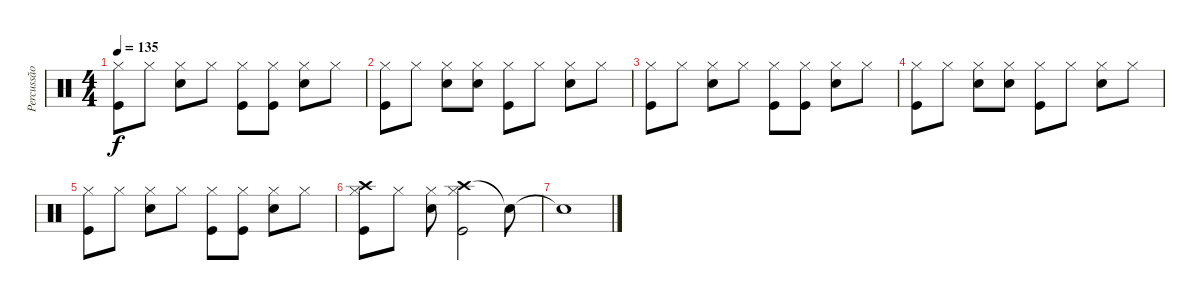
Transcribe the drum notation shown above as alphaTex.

\track ("Percussão" "Percussão") {instrument percussion}
\staff {score}
\articulation defaults
\ts (4 4)
\tempo 135
\clef neutral
\ks c
("Hi-Hat (closed)" "Kick (hit)").8{dy f} "Hi-Hat (closed)".8 ("Hi-Hat (closed)" "Snare (hit) 2").8 "Hi-Hat (closed)".8 ("Hi-Hat (closed)" "Kick (hit)").8 ("Hi-Hat (closed)" "Kick (hit)").8 ("Hi-Hat (closed)" "Snare (hit) 2").8 "Hi-Hat (closed)".8 |
("Hi-Hat (closed)" "Kick (hit)").8 "Hi-Hat (closed)".8 ("Hi-Hat (closed)" "Snare (hit) 2").8 ("Hi-Hat (closed)" "Snare (hit) 2").8 ("Hi-Hat (closed)" "Kick (hit)").8 "Hi-Hat (closed)".8 ("Hi-Hat (closed)" "Snare (hit) 2").8 "Hi-Hat (closed)".8 |
("Hi-Hat (closed)" "Kick (hit)").8 "Hi-Hat (closed)".8 ("Hi-Hat (closed)" "Snare (hit) 2").8 "Hi-Hat (closed)".8 ("Hi-Hat (closed)" "Kick (hit)").8 ("Hi-Hat (closed)" "Kick (hit)").8 ("Hi-Hat (closed)" "Snare (hit) 2").8 "Hi-Hat (closed)".8 |
("Hi-Hat (closed)" "Kick (hit)").8 "Hi-Hat (closed)".8 ("Hi-Hat (closed)" "Snare (hit) 2").8 ("Hi-Hat (closed)" "Snare (hit) 2").8 ("Hi-Hat (closed)" "Kick (hit)").8 "Hi-Hat (closed)".8 ("Hi-Hat (closed)" "Snare (hit) 2").8 "Hi-Hat (closed)".8 |
("Hi-Hat (closed)" "Kick (hit)").8 "Hi-Hat (closed)".8 ("Hi-Hat (closed)" "Snare (hit) 2").8 "Hi-Hat (closed)".8 ("Hi-Hat (closed)" "Kick (hit)").8 ("Hi-Hat (closed)" "Kick (hit)").8 ("Hi-Hat (closed)" "Snare (hit) 2").8 "Hi-Hat (closed)".8 |
("Crash high (hit)" "Hi-Hat (closed)" "Kick (hit)").8 "Hi-Hat (closed)".8 ("Hi-Hat (closed)" "Snare (hit) 2").8 ("Crash high (hit)" "Hi-Hat (closed)" "Kick (hit)").2 "Snare (hit)"{t}.8 |
"Snare (hit)"{t}.1
